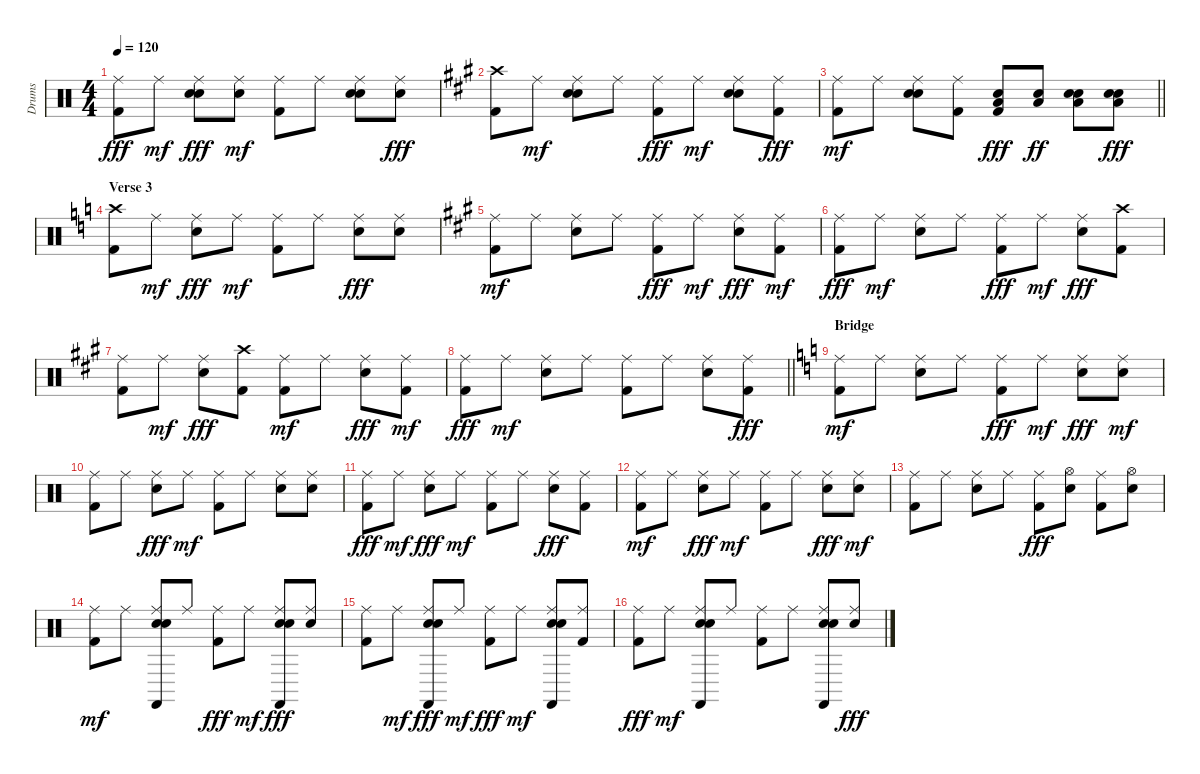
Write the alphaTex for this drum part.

\track ("Drums" "Drums") {instrument percussion}
\staff {score}
\articulation defaults
\ts (4 4)
\tempo 120
\clef neutral
\ks c
("Ride (middle)" "Kick (hit) 2").8{dy fff} "Ride (middle)".8{dy mf} ("Ride (middle)" "Hand Clap (hit)" "Snare (hit) 2").8{dy fff} ("Hand Clap (hit)" "Ride (middle)").8{dy mf} ("Kick (hit) 2" "Ride (middle)").8 "Ride (middle)".8 ("Snare (hit) 2" "Hand Clap (hit)" "Ride (middle)").8 ("Ride (middle)" "Snare (hit) 2").8{dy fff} |
\ks a
("Kick (hit) 2" "Crash high (hit)").8 "Ride (middle)".8{dy mf} ("Hand Clap (hit)" "Snare (hit) 2" "Ride (middle)").8 "Ride (middle)".8 ("Ride (middle)" "Kick (hit) 2").8{dy fff} "Ride (middle)".8{dy mf} ("Snare (hit) 2" "Hand Clap (hit)" "Ride (middle)").8 ("Ride (middle)" "Kick (hit) 2").8{dy fff} |
\barLineRight lightlight
("Kick (hit) 2" "Ride (middle)").8{dy mf} "Ride (middle)".8 ("Hand Clap (hit)" "Snare (hit) 2" "Ride (middle)").8 ("Kick (hit) 2" "Ride (middle)").8 ("Low Floor Tom (hit)" "Snare (hit) 2" "Kick (hit) 2").8{dy fff} ("Snare (hit) 2" "Low Floor Tom (hit)").8{dy ff} ("Hand Clap (hit)" "Snare (hit) 2" "Low Floor Tom (hit)").8 ("Hand Clap (hit)" "Low Floor Tom (hit)" "Snare (hit) 2").8{dy fff} |
\section ("" "Verse 3")
\ks c
("Kick (hit) 2" "Crash high (hit)").8 "Ride (middle)".8{dy mf} ("Ride (middle)" "Snare (hit) 2").8{dy fff} "Ride (middle)".8{dy mf} ("Kick (hit) 2" "Ride (middle)").8 "Ride (middle)".8 ("Ride (middle)" "Snare (hit) 2").8{dy fff} ("Ride (middle)" "Snare (hit) 2").8 |
\ks a
("Kick (hit) 2" "Ride (middle)").8{dy mf} "Ride (middle)".8 ("Snare (hit) 2" "Ride (middle)").8 "Ride (middle)".8 ("Ride (middle)" "Kick (hit) 2").8{dy fff} "Ride (middle)".8{dy mf} ("Ride (middle)" "Snare (hit) 2").8{dy fff} ("Kick (hit) 2" "Ride (middle)").8{dy mf} |
("Ride (middle)" "Kick (hit) 2").8{dy fff} "Ride (middle)".8{dy mf} ("Snare (hit) 2" "Ride (middle)").8 "Ride (middle)".8 ("Ride (middle)" "Kick (hit) 2").8{dy fff} "Ride (middle)".8{dy mf} ("Ride (middle)" "Snare (hit) 2").8{dy fff} ("Crash high (hit)" "Kick (hit) 2").8 |
("Ride (middle)" "Kick (hit) 2").8 "Ride (middle)".8{dy mf} ("Ride (middle)" "Snare (hit) 2").8{dy fff} ("Kick (hit) 2" "Crash high (hit)").8 ("Kick (hit) 2" "Ride (middle)").8{dy mf} "Ride (middle)".8 ("Ride (middle)" "Snare (hit) 2").8{dy fff} ("Kick (hit) 2" "Ride (middle)").8{dy mf} |
\barLineRight lightlight
("Ride (middle)" "Kick (hit) 2").8{dy fff} "Ride (middle)".8{dy mf} ("Snare (hit) 2" "Ride (middle)").8 "Ride (middle)".8 ("Kick (hit) 2" "Ride (middle)").8 "Ride (middle)".8 ("Snare (hit) 2" "Ride (middle)").8 ("Ride (middle)" "Kick (hit) 2").8{dy fff} |
\section ("" "Bridge")
\ks c
("Kick (hit) 2" "Ride (middle)").8{dy mf} "Ride (middle)".8 ("Snare (hit) 2" "Ride (middle)").8 "Ride (middle)".8 ("Ride (middle)" "Kick (hit) 2").8{dy fff} "Ride (middle)".8{dy mf} ("Ride (middle)" "Snare (hit) 2").8{dy fff} ("Snare (hit) 2" "Ride (middle)").8{dy mf} |
("Kick (hit) 2" "Ride (middle)").8 "Ride (middle)".8 ("Ride (middle)" "Snare (hit) 2").8{dy fff} "Ride (middle)".8{dy mf} ("Kick (hit) 2" "Ride (middle)").8 "Ride (middle)".8 ("Snare (hit) 2" "Ride (middle)").8 ("Snare (hit) 2" "Ride (middle)").8 |
("Ride (middle)" "Kick (hit) 2").8{dy fff} "Ride (middle)".8{dy mf} ("Ride (middle)" "Snare (hit) 2").8{dy fff} "Ride (middle)".8{dy mf} ("Kick (hit) 2" "Ride (middle)").8 "Ride (middle)".8 ("Ride (middle)" "Snare (hit) 2").8{dy fff} ("Ride (middle)" "Kick (hit) 2").8 |
("Kick (hit) 2" "Ride (middle)").8{dy mf} "Ride (middle)".8 ("Ride (middle)" "Snare (hit) 2").8{dy fff} "Ride (middle)".8{dy mf} ("Kick (hit) 2" "Ride (middle)").8 "Ride (middle)".8 ("Ride (middle)" "Snare (hit) 2").8{dy fff} ("Snare (hit) 2" "Ride (middle)").8{dy mf} |
("Kick (hit) 2" "Ride (middle)").8 "Ride (middle)".8 ("Snare (hit) 2" "Ride (middle)").8 "Ride (middle)".8 ("Ride (middle)" "Kick (hit) 2").8{dy fff} ("Snare (hit) 2" "Hi-Hat (open)").8 ("Ride (middle)" "Kick (hit) 2").8 ("Hi-Hat (open)" "Snare (hit) 2").8 |
("Kick (hit) 2" "Ride (middle)").8{dy mf} "Ride (middle)".8 ("Hand Clap (hit)" "Snare (hit) 2" "Ride (middle)" "Castanets (hit)").8 "Ride (middle)".8 ("Ride (middle)" "Kick (hit) 2").8{dy fff} "Ride (middle)".8{dy mf} ("Ride (middle)" "Snare (hit) 2" "Castanets (hit)" "Hand Clap (hit)").8{dy fff} ("Ride (middle)" "Snare (hit) 2").8 |
("Ride (middle)" "Kick (hit) 2").8 "Ride (middle)".8{dy mf} ("Snare (hit) 2" "Ride (middle)" "Hand Clap (hit)" "Castanets (hit)").8{dy fff} "Ride (middle)".8{dy mf} ("Ride (middle)" "Kick (hit) 2").8{dy fff} "Ride (middle)".8{dy mf} ("Castanets (hit)" "Hand Clap (hit)" "Snare (hit) 2" "Ride (middle)").8 ("Kick (hit) 2" "Ride (middle)").8 |
("Ride (middle)" "Kick (hit) 2").8{dy fff} "Ride (middle)".8{dy mf} ("Hand Clap (hit)" "Castanets (hit)" "Snare (hit) 2" "Ride (middle)").8 "Ride (middle)".8 ("Kick (hit) 2" "Ride (middle)").8 "Ride (middle)".8 ("Snare (hit) 2" "Castanets (hit)" "Hand Clap (hit)" "Ride (middle)").8 ("Ride (middle)" "Snare (hit) 2").8{dy fff}
